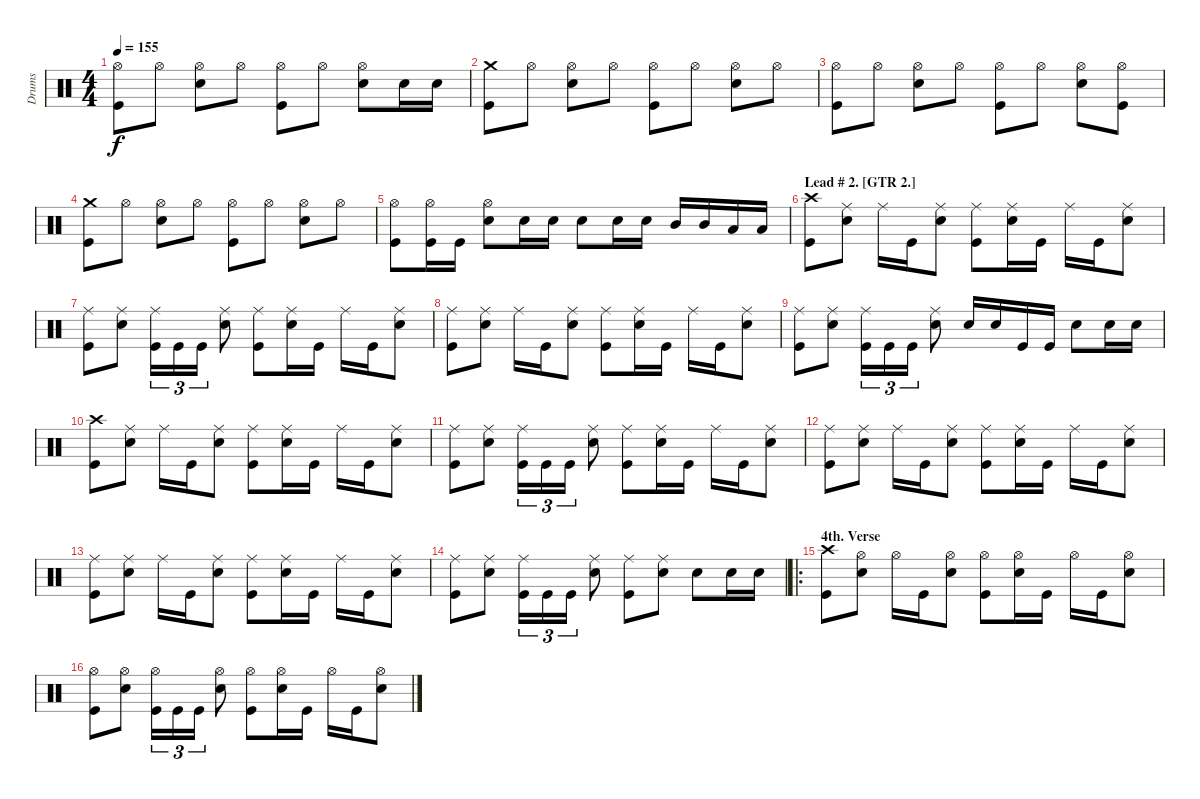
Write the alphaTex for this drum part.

\track ("Drums" "Drums") {instrument percussion}
\staff {score}
\articulation defaults
\ts (4 4)
\tempo 155
\clef neutral
\ks c
("Hi-Hat (open)" "Kick (hit)").8{dy f} "Hi-Hat (open)".8 ("Hi-Hat (open)" "Snare (hit) 2").8 "Hi-Hat (open)".8 ("Hi-Hat (open)" "Kick (hit)").8 "Hi-Hat (open)".8 ("Hi-Hat (open)" "Snare (hit) 2").8 "Snare (hit) 2".16 "Snare (hit) 2".16 |
("Crash medium (hit)" "Kick (hit)").8 "Hi-Hat (open)".8 ("Hi-Hat (open)" "Snare (hit) 2").8 "Hi-Hat (open)".8 ("Hi-Hat (open)" "Kick (hit)").8 "Hi-Hat (open)".8 ("Hi-Hat (open)" "Snare (hit) 2").8 "Hi-Hat (open)".8 |
("Hi-Hat (open)" "Kick (hit)").8 "Hi-Hat (open)".8 ("Hi-Hat (open)" "Snare (hit) 2").8 "Hi-Hat (open)".8 ("Hi-Hat (open)" "Kick (hit)").8 "Hi-Hat (open)".8 ("Hi-Hat (open)" "Snare (hit) 2").8 ("Hi-Hat (open)" "Kick (hit)").8 |
("Crash medium (hit)" "Kick (hit)").8 "Hi-Hat (open)".8 ("Hi-Hat (open)" "Snare (hit) 2").8 "Hi-Hat (open)".8 ("Hi-Hat (open)" "Kick (hit)").8 "Hi-Hat (open)".8 ("Hi-Hat (open)" "Snare (hit) 2").8 "Hi-Hat (open)".8 |
("Hi-Hat (open)" "Kick (hit)").8 ("Hi-Hat (open)" "Kick (hit)").16 "Kick (hit)".16 ("Hi-Hat (open)" "Snare (hit) 2").8 "Snare (hit) 2".16 "Snare (hit) 2".16 "Snare (hit) 2".8 "Snare (hit) 2".16 "Snare (hit) 2".16 "Mid Tom (hit)".16 "Mid Tom (hit)".16 "Low Tom (hit)".16 "Low Tom (hit)".16 |
\section ("" "Lead # 2. [GTR 2.]")
("Crash high (hit)" "Kick (hit)").8 ("Ride (middle)" "Snare (hit) 2").8 "Ride (middle)".16 "Kick (hit)".16 ("Ride (middle)" "Snare (hit) 2").8 ("Ride (middle)" "Kick (hit)").8 ("Ride (middle)" "Snare (hit) 2").16 "Kick (hit)".16 "Ride (middle)".16 "Kick (hit)".16 ("Ride (middle)" "Snare (hit) 2").8 |
("Ride (middle)" "Kick (hit)").8 ("Ride (middle)" "Snare (hit) 2").8 ("Ride (middle)" "Kick (hit)").16{tu (3 2)} "Kick (hit)".16{tu (3 2)} "Kick (hit)".16{tu (3 2)} ("Ride (middle)" "Snare (hit) 2").8 ("Ride (middle)" "Kick (hit)").8 ("Ride (middle)" "Snare (hit) 2").16 "Kick (hit)".16 "Ride (middle)".16 "Kick (hit)".16 ("Ride (middle)" "Snare (hit) 2").8 |
("Ride (middle)" "Kick (hit)").8 ("Ride (middle)" "Snare (hit) 2").8 "Ride (middle)".16 "Kick (hit)".16 ("Ride (middle)" "Snare (hit) 2").8 ("Ride (middle)" "Kick (hit)").8 ("Ride (middle)" "Snare (hit) 2").16 "Kick (hit)".16 "Ride (middle)".16 "Kick (hit)".16 ("Ride (middle)" "Snare (hit) 2").8 |
("Ride (middle)" "Kick (hit)").8 ("Ride (middle)" "Snare (hit) 2").8 ("Ride (middle)" "Kick (hit)").16{tu (3 2)} "Kick (hit)".16{tu (3 2)} "Kick (hit)".16{tu (3 2)} ("Ride (middle)" "Snare (hit) 2").8 "Snare (hit) 2".16 "Snare (hit) 2".16 "Kick (hit)".16 "Kick (hit)".16 "Snare (hit) 2".8 "Snare (hit) 2".16 "Snare (hit) 2".16 |
("Crash high (hit)" "Kick (hit)").8 ("Ride (middle)" "Snare (hit) 2").8 "Ride (middle)".16 "Kick (hit)".16 ("Ride (middle)" "Snare (hit) 2").8 ("Ride (middle)" "Kick (hit)").8 ("Ride (middle)" "Snare (hit) 2").16 "Kick (hit)".16 "Ride (middle)".16 "Kick (hit)".16 ("Ride (middle)" "Snare (hit) 2").8 |
("Ride (middle)" "Kick (hit)").8 ("Ride (middle)" "Snare (hit) 2").8 ("Ride (middle)" "Kick (hit)").16{tu (3 2)} "Kick (hit)".16{tu (3 2)} "Kick (hit)".16{tu (3 2)} ("Ride (middle)" "Snare (hit) 2").8 ("Ride (middle)" "Kick (hit)").8 ("Ride (middle)" "Snare (hit) 2").16 "Kick (hit)".16 "Ride (middle)".16 "Kick (hit)".16 ("Ride (middle)" "Snare (hit) 2").8 |
("Ride (middle)" "Kick (hit)").8 ("Ride (middle)" "Snare (hit) 2").8 "Ride (middle)".16 "Kick (hit)".16 ("Ride (middle)" "Snare (hit) 2").8 ("Ride (middle)" "Kick (hit)").8 ("Ride (middle)" "Snare (hit) 2").16 "Kick (hit)".16 "Ride (middle)".16 "Kick (hit)".16 ("Ride (middle)" "Snare (hit) 2").8 |
("Ride (middle)" "Kick (hit)").8 ("Ride (middle)" "Snare (hit) 2").8 "Ride (middle)".16 "Kick (hit)".16 ("Ride (middle)" "Snare (hit) 2").8 ("Ride (middle)" "Kick (hit)").8 ("Ride (middle)" "Snare (hit) 2").16 "Kick (hit)".16 "Ride (middle)".16 "Kick (hit)".16 ("Ride (middle)" "Snare (hit) 2").8 |
("Ride (middle)" "Kick (hit)").8 ("Ride (middle)" "Snare (hit) 2").8 ("Ride (middle)" "Kick (hit)").16{tu (3 2)} "Kick (hit)".16{tu (3 2)} "Kick (hit)".16{tu (3 2)} ("Ride (middle)" "Snare (hit) 2").8 ("Ride (middle)" "Kick (hit)").8 ("Ride (middle)" "Snare (hit) 2").8 "Snare (hit) 2".8 "Snare (hit) 2".16 "Snare (hit) 2".16 |
\ro
\section ("" "4th. Verse")
("Crash high (hit)" "Kick (hit)").8 ("Hi-Hat (open)" "Snare (hit) 2").8 "Hi-Hat (open)".16 "Kick (hit)".16 ("Hi-Hat (open)" "Snare (hit) 2").8 ("Hi-Hat (open)" "Kick (hit)").8 ("Hi-Hat (open)" "Snare (hit) 2").16 "Kick (hit)".16 "Hi-Hat (open)".16 "Kick (hit)".16 ("Hi-Hat (open)" "Snare (hit) 2").8 |
("Hi-Hat (open)" "Kick (hit)").8 ("Hi-Hat (open)" "Snare (hit) 2").8 ("Hi-Hat (open)" "Kick (hit)").16{tu (3 2)} "Kick (hit)".16{tu (3 2)} "Kick (hit)".16{tu (3 2)} ("Hi-Hat (open)" "Snare (hit) 2").8 ("Hi-Hat (open)" "Kick (hit)").8 ("Hi-Hat (open)" "Snare (hit) 2").16 "Kick (hit)".16 "Hi-Hat (open)".16 "Kick (hit)".16 ("Hi-Hat (open)" "Snare (hit) 2").8
